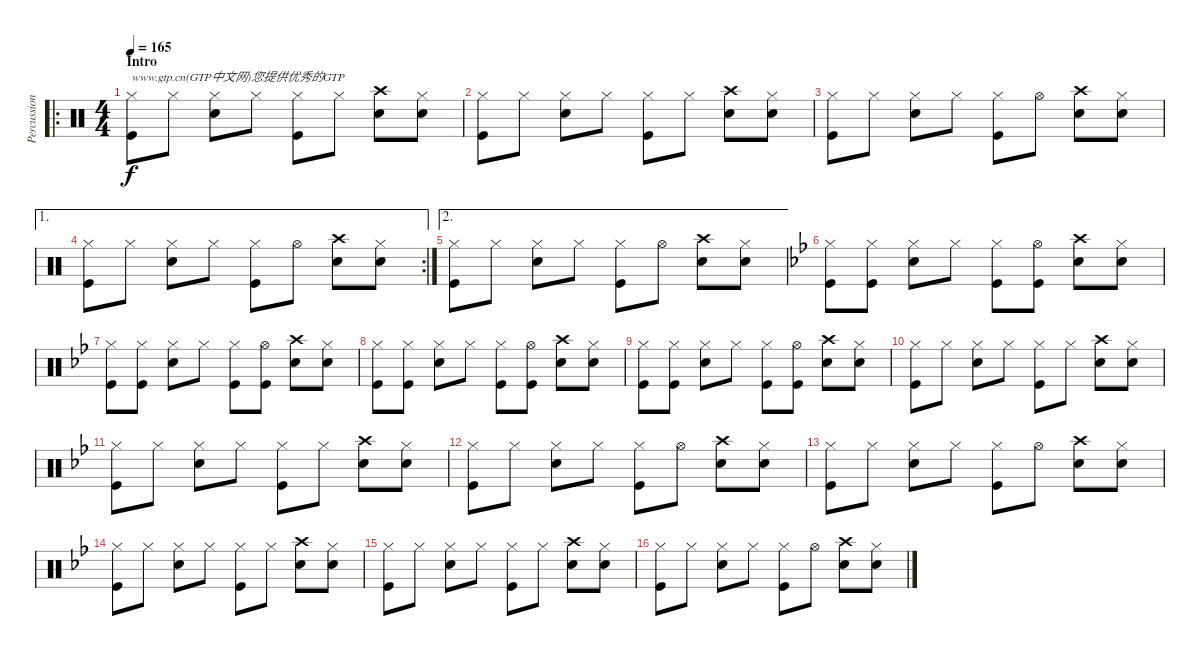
\track ("Percussions" "Percussion") {instrument percussion}
\staff {score}
\articulation defaults
\ro
\ts (4 4)
\section ("" "Intro")
\tempo 165
\clef neutral
\ks c
("Hi-Hat (closed)" "Kick (hit)").8{txt "www.gtp.cn(GTP中文网)您提供优秀的GTP" dy f} "Hi-Hat (closed)".8 ("Hi-Hat (closed)" "Snare (hit) 2").8 "Hi-Hat (closed)".8 ("Hi-Hat (closed)" "Kick (hit)").8 "Hi-Hat (closed)".8 ("Crash high (hit)" "Snare (hit) 2").8 ("Hi-Hat (closed)" "Snare (hit) 2").8 |
("Hi-Hat (closed)" "Kick (hit)").8 "Hi-Hat (closed)".8 ("Hi-Hat (closed)" "Snare (hit) 2").8 "Hi-Hat (closed)".8 ("Hi-Hat (closed)" "Kick (hit)").8 "Hi-Hat (closed)".8 ("Crash high (hit)" "Snare (hit) 2").8 ("Hi-Hat (closed)" "Snare (hit) 2").8 |
("Hi-Hat (closed)" "Kick (hit)").8 "Hi-Hat (closed)".8 ("Hi-Hat (closed)" "Snare (hit) 2").8 "Hi-Hat (closed)".8 ("Hi-Hat (closed)" "Kick (hit)").8 "Hi-Hat (open)".8 ("Crash high (hit)" "Snare (hit) 2").8 ("Hi-Hat (closed)" "Snare (hit) 2").8 |
\ae 1
\rc 2
("Hi-Hat (closed)" "Kick (hit)").8 "Hi-Hat (closed)".8 ("Hi-Hat (closed)" "Snare (hit) 2").8 "Hi-Hat (closed)".8 ("Hi-Hat (closed)" "Kick (hit)").8 "Hi-Hat (open)".8 ("Crash high (hit)" "Snare (hit) 2").8 ("Hi-Hat (closed)" "Snare (hit) 2").8 |
\ae 2
("Hi-Hat (closed)" "Kick (hit)").8 "Hi-Hat (closed)".8 ("Hi-Hat (closed)" "Snare (hit) 2").8 "Hi-Hat (closed)".8 ("Hi-Hat (closed)" "Kick (hit)").8 "Hi-Hat (open)".8 ("Crash high (hit)" "Snare (hit) 2").8 ("Hi-Hat (closed)" "Snare (hit) 2").8 |
\ks bb
("Hi-Hat (closed)" "Kick (hit)").8 ("Hi-Hat (closed)" "Kick (hit)").8 ("Hi-Hat (closed)" "Snare (hit) 2").8 "Hi-Hat (closed)".8 ("Hi-Hat (closed)" "Kick (hit)").8 ("Hi-Hat (open)" "Kick (hit)").8 ("Crash high (hit)" "Snare (hit) 2").8 ("Hi-Hat (closed)" "Snare (hit) 2").8 |
("Hi-Hat (closed)" "Kick (hit)").8 ("Hi-Hat (closed)" "Kick (hit)").8 ("Hi-Hat (closed)" "Snare (hit) 2").8 "Hi-Hat (closed)".8 ("Hi-Hat (closed)" "Kick (hit)").8 ("Hi-Hat (open)" "Kick (hit)").8 ("Crash high (hit)" "Snare (hit) 2").8 ("Hi-Hat (closed)" "Snare (hit) 2").8 |
("Hi-Hat (closed)" "Kick (hit)").8 ("Hi-Hat (closed)" "Kick (hit)").8 ("Hi-Hat (closed)" "Snare (hit) 2").8 "Hi-Hat (closed)".8 ("Hi-Hat (closed)" "Kick (hit)").8 ("Hi-Hat (open)" "Kick (hit)").8 ("Crash high (hit)" "Snare (hit) 2").8 ("Hi-Hat (closed)" "Snare (hit) 2").8 |
("Hi-Hat (closed)" "Kick (hit)").8 ("Hi-Hat (closed)" "Kick (hit)").8 ("Hi-Hat (closed)" "Snare (hit) 2").8 "Hi-Hat (closed)".8 ("Hi-Hat (closed)" "Kick (hit)").8 ("Hi-Hat (open)" "Kick (hit)").8 ("Crash high (hit)" "Snare (hit) 2").8 ("Hi-Hat (closed)" "Snare (hit) 2").8 |
("Hi-Hat (closed)" "Kick (hit)").8 "Hi-Hat (closed)".8 ("Hi-Hat (closed)" "Snare (hit) 2").8 "Hi-Hat (closed)".8 ("Hi-Hat (closed)" "Kick (hit)").8 "Hi-Hat (closed)".8 ("Crash high (hit)" "Snare (hit) 2").8 ("Hi-Hat (closed)" "Snare (hit) 2").8 |
("Hi-Hat (closed)" "Kick (hit)").8 "Hi-Hat (closed)".8 ("Hi-Hat (closed)" "Snare (hit) 2").8 "Hi-Hat (closed)".8 ("Hi-Hat (closed)" "Kick (hit)").8 "Hi-Hat (closed)".8 ("Crash high (hit)" "Snare (hit) 2").8 ("Hi-Hat (closed)" "Snare (hit) 2").8 |
("Hi-Hat (closed)" "Kick (hit)").8 "Hi-Hat (closed)".8 ("Hi-Hat (closed)" "Snare (hit) 2").8 "Hi-Hat (closed)".8 ("Hi-Hat (closed)" "Kick (hit)").8 "Hi-Hat (open)".8 ("Crash high (hit)" "Snare (hit) 2").8 ("Hi-Hat (closed)" "Snare (hit) 2").8 |
("Hi-Hat (closed)" "Kick (hit)").8 "Hi-Hat (closed)".8 ("Hi-Hat (closed)" "Snare (hit) 2").8 "Hi-Hat (closed)".8 ("Hi-Hat (closed)" "Kick (hit)").8 "Hi-Hat (open)".8 ("Crash high (hit)" "Snare (hit) 2").8 ("Hi-Hat (closed)" "Snare (hit) 2").8 |
("Hi-Hat (closed)" "Kick (hit)").8 "Hi-Hat (closed)".8 ("Hi-Hat (closed)" "Snare (hit) 2").8 "Hi-Hat (closed)".8 ("Hi-Hat (closed)" "Kick (hit)").8 "Hi-Hat (closed)".8 ("Crash high (hit)" "Snare (hit) 2").8 ("Hi-Hat (closed)" "Snare (hit) 2").8 |
("Hi-Hat (closed)" "Kick (hit)").8 "Hi-Hat (closed)".8 ("Hi-Hat (closed)" "Snare (hit) 2").8 "Hi-Hat (closed)".8 ("Hi-Hat (closed)" "Kick (hit)").8 "Hi-Hat (closed)".8 ("Crash high (hit)" "Snare (hit) 2").8 ("Hi-Hat (closed)" "Snare (hit) 2").8 |
("Hi-Hat (closed)" "Kick (hit)").8 "Hi-Hat (closed)".8 ("Hi-Hat (closed)" "Snare (hit) 2").8 "Hi-Hat (closed)".8 ("Hi-Hat (closed)" "Kick (hit)").8 "Hi-Hat (open)".8 ("Crash high (hit)" "Snare (hit) 2").8 ("Hi-Hat (closed)" "Snare (hit) 2").8
